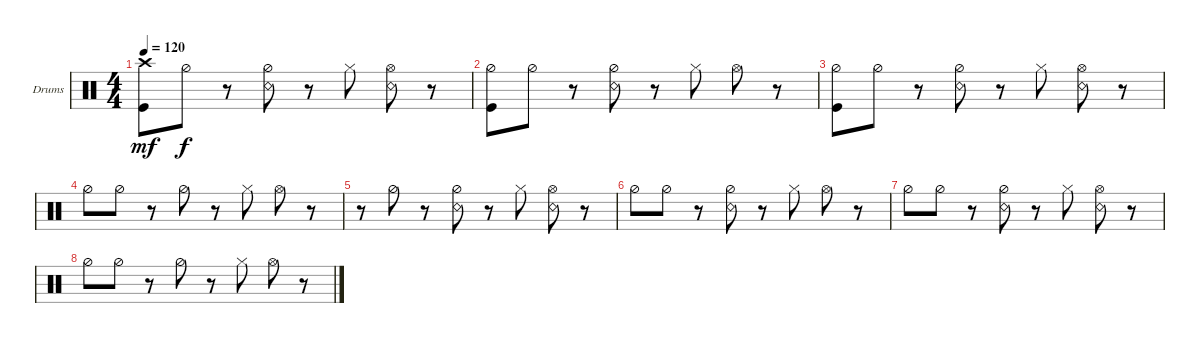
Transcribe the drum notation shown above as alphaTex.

\bracketExtendMode groupsimilarinstruments
\firstSystemTrackNameOrientation horizontal
\otherSystemsTrackNameOrientation horizontal
\track ("Drumkit" "Drums") {instrument percussion}
\staff {score}
\articulation defaults
\ts (4 4)
\tempo 120
\clef neutral
\ks c
("Crash high (hit)" "Kick (hit)").8{dy mf} "Hi-Hat (half)".8{dy f} r.8 ("Hi-Hat (half)" "Snare (rim shot)").8 r.8 "Hi-Hat (closed)".8 ("Hi-Hat (open)" "Snare (rim shot)").8 r.8 |
("Hi-Hat (half)" "Kick (hit)").8 "Hi-Hat (half)".8 r.8 ("Hi-Hat (half)" "Snare (rim shot)").8 r.8 "Hi-Hat (closed)".8 "Hi-Hat (open)".8 r.8 |
("Hi-Hat (half)" "Kick (hit)").8 "Hi-Hat (half)".8 r.8 ("Hi-Hat (half)" "Snare (rim shot)").8 r.8 "Hi-Hat (closed)".8 ("Hi-Hat (open)" "Snare (rim shot)").8 r.8 |
"Hi-Hat (half)".8 "Hi-Hat (half)".8 r.8 "Hi-Hat (half)".8 r.8 "Hi-Hat (closed)".8 "Hi-Hat (open)".8 r.8 |
r.8 "Hi-Hat (half)".8 r.8 ("Hi-Hat (half)" "Snare (rim shot)").8 r.8 "Hi-Hat (closed)".8 ("Hi-Hat (open)" "Snare (rim shot)").8 r.8 |
"Hi-Hat (half)".8 "Hi-Hat (half)".8 r.8 ("Hi-Hat (half)" "Snare (rim shot)").8 r.8 "Hi-Hat (closed)".8 "Hi-Hat (open)".8 r.8 |
"Hi-Hat (half)".8 "Hi-Hat (half)".8 r.8 ("Hi-Hat (half)" "Snare (rim shot)").8 r.8 "Hi-Hat (closed)".8 ("Hi-Hat (open)" "Snare (rim shot)").8 r.8 |
"Hi-Hat (half)".8 "Hi-Hat (half)".8 r.8 "Hi-Hat (half)".8 r.8 "Hi-Hat (closed)".8 "Hi-Hat (open)".8 r.8
